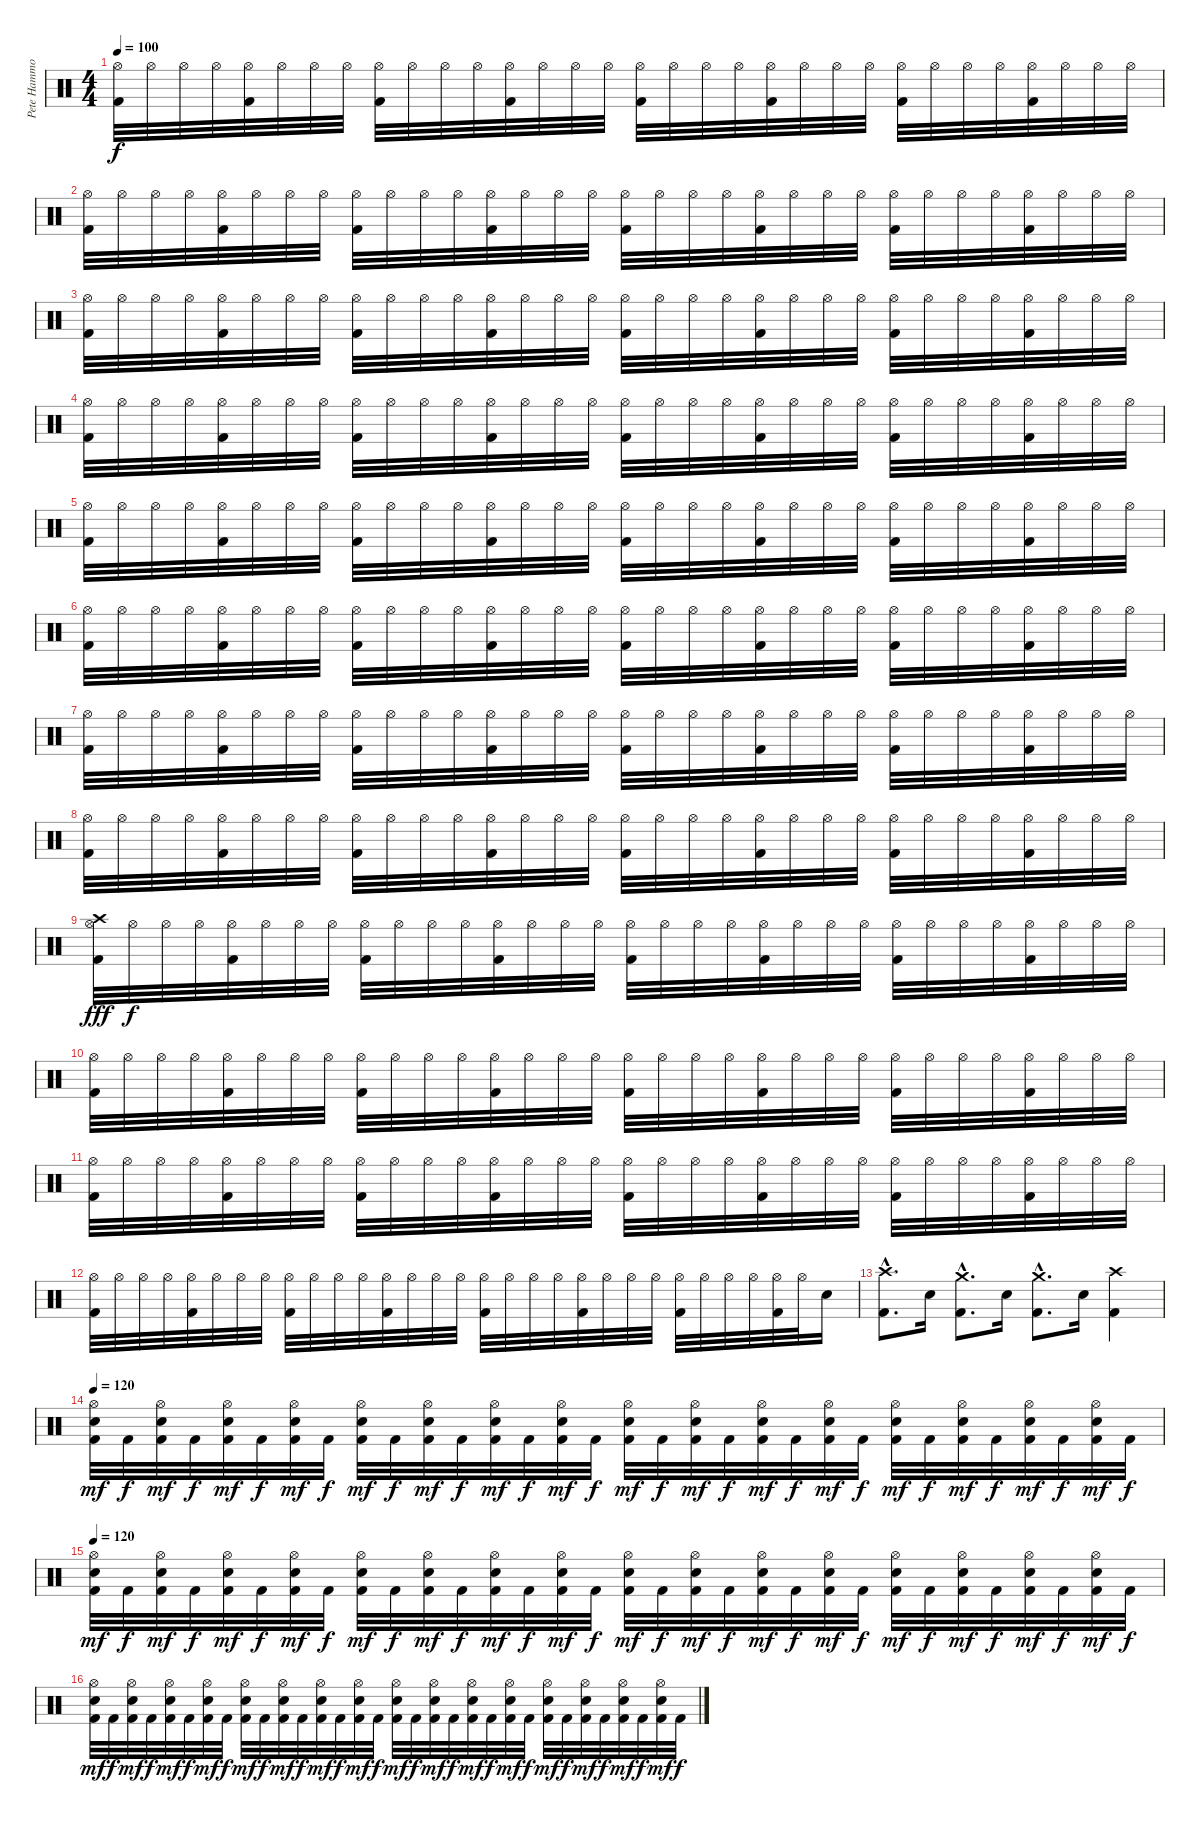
\track ("Pete Hammoura" "Pete Hammo") {instrument percussion}
\staff {score}
\articulation defaults
\ts (4 4)
\tempo 100
\clef neutral
\ks c
("Hi-Hat (open)" "Kick (hit) 2").32{dy f} "Hi-Hat (open)".32 "Hi-Hat (open)".32 "Hi-Hat (open)".32 ("Hi-Hat (open)" "Kick (hit) 2").32 "Hi-Hat (open)".32 "Hi-Hat (open)".32 "Hi-Hat (open)".32 ("Hi-Hat (open)" "Kick (hit) 2").32 "Hi-Hat (open)".32 "Hi-Hat (open)".32 "Hi-Hat (open)".32 ("Hi-Hat (open)" "Kick (hit) 2").32 "Hi-Hat (open)".32 "Hi-Hat (open)".32 "Hi-Hat (open)".32 ("Hi-Hat (open)" "Kick (hit) 2").32 "Hi-Hat (open)".32 "Hi-Hat (open)".32 "Hi-Hat (open)".32 ("Hi-Hat (open)" "Kick (hit) 2").32 "Hi-Hat (open)".32 "Hi-Hat (open)".32 "Hi-Hat (open)".32 ("Hi-Hat (open)" "Kick (hit) 2").32 "Hi-Hat (open)".32 "Hi-Hat (open)".32 "Hi-Hat (open)".32 ("Hi-Hat (open)" "Kick (hit) 2").32 "Hi-Hat (open)".32 "Hi-Hat (open)".32 "Hi-Hat (open)".32 |
("Hi-Hat (open)" "Kick (hit) 2").32 "Hi-Hat (open)".32 "Hi-Hat (open)".32 "Hi-Hat (open)".32 ("Hi-Hat (open)" "Kick (hit) 2").32 "Hi-Hat (open)".32 "Hi-Hat (open)".32 "Hi-Hat (open)".32 ("Hi-Hat (open)" "Kick (hit) 2").32 "Hi-Hat (open)".32 "Hi-Hat (open)".32 "Hi-Hat (open)".32 ("Hi-Hat (open)" "Kick (hit) 2").32 "Hi-Hat (open)".32 "Hi-Hat (open)".32 "Hi-Hat (open)".32 ("Hi-Hat (open)" "Kick (hit) 2").32 "Hi-Hat (open)".32 "Hi-Hat (open)".32 "Hi-Hat (open)".32 ("Hi-Hat (open)" "Kick (hit) 2").32 "Hi-Hat (open)".32 "Hi-Hat (open)".32 "Hi-Hat (open)".32 ("Hi-Hat (open)" "Kick (hit) 2").32 "Hi-Hat (open)".32 "Hi-Hat (open)".32 "Hi-Hat (open)".32 ("Hi-Hat (open)" "Kick (hit) 2").32 "Hi-Hat (open)".32 "Hi-Hat (open)".32 "Hi-Hat (open)".32 |
("Hi-Hat (open)" "Kick (hit) 2").32 "Hi-Hat (open)".32 "Hi-Hat (open)".32 "Hi-Hat (open)".32 ("Hi-Hat (open)" "Kick (hit) 2").32 "Hi-Hat (open)".32 "Hi-Hat (open)".32 "Hi-Hat (open)".32 ("Hi-Hat (open)" "Kick (hit) 2").32 "Hi-Hat (open)".32 "Hi-Hat (open)".32 "Hi-Hat (open)".32 ("Hi-Hat (open)" "Kick (hit) 2").32 "Hi-Hat (open)".32 "Hi-Hat (open)".32 "Hi-Hat (open)".32 ("Hi-Hat (open)" "Kick (hit) 2").32 "Hi-Hat (open)".32 "Hi-Hat (open)".32 "Hi-Hat (open)".32 ("Hi-Hat (open)" "Kick (hit) 2").32 "Hi-Hat (open)".32 "Hi-Hat (open)".32 "Hi-Hat (open)".32 ("Hi-Hat (open)" "Kick (hit) 2").32 "Hi-Hat (open)".32 "Hi-Hat (open)".32 "Hi-Hat (open)".32 ("Hi-Hat (open)" "Kick (hit) 2").32 "Hi-Hat (open)".32 "Hi-Hat (open)".32 "Hi-Hat (open)".32 |
("Hi-Hat (open)" "Kick (hit) 2").32 "Hi-Hat (open)".32 "Hi-Hat (open)".32 "Hi-Hat (open)".32 ("Hi-Hat (open)" "Kick (hit) 2").32 "Hi-Hat (open)".32 "Hi-Hat (open)".32 "Hi-Hat (open)".32 ("Hi-Hat (open)" "Kick (hit) 2").32 "Hi-Hat (open)".32 "Hi-Hat (open)".32 "Hi-Hat (open)".32 ("Hi-Hat (open)" "Kick (hit) 2").32 "Hi-Hat (open)".32 "Hi-Hat (open)".32 "Hi-Hat (open)".32 ("Hi-Hat (open)" "Kick (hit) 2").32 "Hi-Hat (open)".32 "Hi-Hat (open)".32 "Hi-Hat (open)".32 ("Hi-Hat (open)" "Kick (hit) 2").32 "Hi-Hat (open)".32 "Hi-Hat (open)".32 "Hi-Hat (open)".32 ("Hi-Hat (open)" "Kick (hit) 2").32 "Hi-Hat (open)".32 "Hi-Hat (open)".32 "Hi-Hat (open)".32 ("Hi-Hat (open)" "Kick (hit) 2").32 "Hi-Hat (open)".32 "Hi-Hat (open)".32 "Hi-Hat (open)".32 |
("Hi-Hat (open)" "Kick (hit) 2").32 "Hi-Hat (open)".32 "Hi-Hat (open)".32 "Hi-Hat (open)".32 ("Hi-Hat (open)" "Kick (hit) 2").32 "Hi-Hat (open)".32 "Hi-Hat (open)".32 "Hi-Hat (open)".32 ("Hi-Hat (open)" "Kick (hit) 2").32 "Hi-Hat (open)".32 "Hi-Hat (open)".32 "Hi-Hat (open)".32 ("Hi-Hat (open)" "Kick (hit) 2").32 "Hi-Hat (open)".32 "Hi-Hat (open)".32 "Hi-Hat (open)".32 ("Hi-Hat (open)" "Kick (hit) 2").32 "Hi-Hat (open)".32 "Hi-Hat (open)".32 "Hi-Hat (open)".32 ("Hi-Hat (open)" "Kick (hit) 2").32 "Hi-Hat (open)".32 "Hi-Hat (open)".32 "Hi-Hat (open)".32 ("Hi-Hat (open)" "Kick (hit) 2").32 "Hi-Hat (open)".32 "Hi-Hat (open)".32 "Hi-Hat (open)".32 ("Hi-Hat (open)" "Kick (hit) 2").32 "Hi-Hat (open)".32 "Hi-Hat (open)".32 "Hi-Hat (open)".32 |
("Hi-Hat (open)" "Kick (hit) 2").32 "Hi-Hat (open)".32 "Hi-Hat (open)".32 "Hi-Hat (open)".32 ("Hi-Hat (open)" "Kick (hit) 2").32 "Hi-Hat (open)".32 "Hi-Hat (open)".32 "Hi-Hat (open)".32 ("Hi-Hat (open)" "Kick (hit) 2").32 "Hi-Hat (open)".32 "Hi-Hat (open)".32 "Hi-Hat (open)".32 ("Hi-Hat (open)" "Kick (hit) 2").32 "Hi-Hat (open)".32 "Hi-Hat (open)".32 "Hi-Hat (open)".32 ("Hi-Hat (open)" "Kick (hit) 2").32 "Hi-Hat (open)".32 "Hi-Hat (open)".32 "Hi-Hat (open)".32 ("Hi-Hat (open)" "Kick (hit) 2").32 "Hi-Hat (open)".32 "Hi-Hat (open)".32 "Hi-Hat (open)".32 ("Hi-Hat (open)" "Kick (hit) 2").32 "Hi-Hat (open)".32 "Hi-Hat (open)".32 "Hi-Hat (open)".32 ("Hi-Hat (open)" "Kick (hit) 2").32 "Hi-Hat (open)".32 "Hi-Hat (open)".32 "Hi-Hat (open)".32 |
("Hi-Hat (open)" "Kick (hit) 2").32 "Hi-Hat (open)".32 "Hi-Hat (open)".32 "Hi-Hat (open)".32 ("Hi-Hat (open)" "Kick (hit) 2").32 "Hi-Hat (open)".32 "Hi-Hat (open)".32 "Hi-Hat (open)".32 ("Hi-Hat (open)" "Kick (hit) 2").32 "Hi-Hat (open)".32 "Hi-Hat (open)".32 "Hi-Hat (open)".32 ("Hi-Hat (open)" "Kick (hit) 2").32 "Hi-Hat (open)".32 "Hi-Hat (open)".32 "Hi-Hat (open)".32 ("Hi-Hat (open)" "Kick (hit) 2").32 "Hi-Hat (open)".32 "Hi-Hat (open)".32 "Hi-Hat (open)".32 ("Hi-Hat (open)" "Kick (hit) 2").32 "Hi-Hat (open)".32 "Hi-Hat (open)".32 "Hi-Hat (open)".32 ("Hi-Hat (open)" "Kick (hit) 2").32 "Hi-Hat (open)".32 "Hi-Hat (open)".32 "Hi-Hat (open)".32 ("Hi-Hat (open)" "Kick (hit) 2").32 "Hi-Hat (open)".32 "Hi-Hat (open)".32 "Hi-Hat (open)".32 |
("Hi-Hat (open)" "Kick (hit) 2").32 "Hi-Hat (open)".32 "Hi-Hat (open)".32 "Hi-Hat (open)".32 ("Hi-Hat (open)" "Kick (hit) 2").32 "Hi-Hat (open)".32 "Hi-Hat (open)".32 "Hi-Hat (open)".32 ("Hi-Hat (open)" "Kick (hit) 2").32 "Hi-Hat (open)".32 "Hi-Hat (open)".32 "Hi-Hat (open)".32 ("Hi-Hat (open)" "Kick (hit) 2").32 "Hi-Hat (open)".32 "Hi-Hat (open)".32 "Hi-Hat (open)".32 ("Hi-Hat (open)" "Kick (hit) 2").32 "Hi-Hat (open)".32 "Hi-Hat (open)".32 "Hi-Hat (open)".32 ("Hi-Hat (open)" "Kick (hit) 2").32 "Hi-Hat (open)".32 "Hi-Hat (open)".32 "Hi-Hat (open)".32 ("Hi-Hat (open)" "Kick (hit) 2").32 "Hi-Hat (open)".32 "Hi-Hat (open)".32 "Hi-Hat (open)".32 ("Hi-Hat (open)" "Kick (hit) 2").32 "Hi-Hat (open)".32 "Hi-Hat (open)".32 "Hi-Hat (open)".32 |
("Crash high (hit)" "Hi-Hat (open)" "Kick (hit) 2").32{dy fff} "Hi-Hat (open)".32{dy f} "Hi-Hat (open)".32 "Hi-Hat (open)".32 ("Hi-Hat (open)" "Kick (hit) 2").32 "Hi-Hat (open)".32 "Hi-Hat (open)".32 "Hi-Hat (open)".32 ("Hi-Hat (open)" "Kick (hit) 2").32 "Hi-Hat (open)".32 "Hi-Hat (open)".32 "Hi-Hat (open)".32 ("Hi-Hat (open)" "Kick (hit) 2").32 "Hi-Hat (open)".32 "Hi-Hat (open)".32 "Hi-Hat (open)".32 ("Hi-Hat (open)" "Kick (hit) 2").32 "Hi-Hat (open)".32 "Hi-Hat (open)".32 "Hi-Hat (open)".32 ("Hi-Hat (open)" "Kick (hit) 2").32 "Hi-Hat (open)".32 "Hi-Hat (open)".32 "Hi-Hat (open)".32 ("Hi-Hat (open)" "Kick (hit) 2").32 "Hi-Hat (open)".32 "Hi-Hat (open)".32 "Hi-Hat (open)".32 ("Hi-Hat (open)" "Kick (hit) 2").32 "Hi-Hat (open)".32 "Hi-Hat (open)".32 "Hi-Hat (open)".32 |
("Hi-Hat (open)" "Kick (hit) 2").32 "Hi-Hat (open)".32 "Hi-Hat (open)".32 "Hi-Hat (open)".32 ("Hi-Hat (open)" "Kick (hit) 2").32 "Hi-Hat (open)".32 "Hi-Hat (open)".32 "Hi-Hat (open)".32 ("Hi-Hat (open)" "Kick (hit) 2").32 "Hi-Hat (open)".32 "Hi-Hat (open)".32 "Hi-Hat (open)".32 ("Hi-Hat (open)" "Kick (hit) 2").32 "Hi-Hat (open)".32 "Hi-Hat (open)".32 "Hi-Hat (open)".32 ("Hi-Hat (open)" "Kick (hit) 2").32 "Hi-Hat (open)".32 "Hi-Hat (open)".32 "Hi-Hat (open)".32 ("Hi-Hat (open)" "Kick (hit) 2").32 "Hi-Hat (open)".32 "Hi-Hat (open)".32 "Hi-Hat (open)".32 ("Hi-Hat (open)" "Kick (hit) 2").32 "Hi-Hat (open)".32 "Hi-Hat (open)".32 "Hi-Hat (open)".32 ("Hi-Hat (open)" "Kick (hit) 2").32 "Hi-Hat (open)".32 "Hi-Hat (open)".32 "Hi-Hat (open)".32 |
("Hi-Hat (open)" "Kick (hit) 2").32 "Hi-Hat (open)".32 "Hi-Hat (open)".32 "Hi-Hat (open)".32 ("Hi-Hat (open)" "Kick (hit) 2").32 "Hi-Hat (open)".32 "Hi-Hat (open)".32 "Hi-Hat (open)".32 ("Hi-Hat (open)" "Kick (hit) 2").32 "Hi-Hat (open)".32 "Hi-Hat (open)".32 "Hi-Hat (open)".32 ("Hi-Hat (open)" "Kick (hit) 2").32 "Hi-Hat (open)".32 "Hi-Hat (open)".32 "Hi-Hat (open)".32 ("Hi-Hat (open)" "Kick (hit) 2").32 "Hi-Hat (open)".32 "Hi-Hat (open)".32 "Hi-Hat (open)".32 ("Hi-Hat (open)" "Kick (hit) 2").32 "Hi-Hat (open)".32 "Hi-Hat (open)".32 "Hi-Hat (open)".32 ("Hi-Hat (open)" "Kick (hit) 2").32 "Hi-Hat (open)".32 "Hi-Hat (open)".32 "Hi-Hat (open)".32 ("Hi-Hat (open)" "Kick (hit) 2").32 "Hi-Hat (open)".32 "Hi-Hat (open)".32 "Hi-Hat (open)".32 |
("Hi-Hat (open)" "Kick (hit) 2").32 "Hi-Hat (open)".32 "Hi-Hat (open)".32 "Hi-Hat (open)".32 ("Hi-Hat (open)" "Kick (hit) 2").32 "Hi-Hat (open)".32 "Hi-Hat (open)".32 "Hi-Hat (open)".32 ("Hi-Hat (open)" "Kick (hit) 2").32 "Hi-Hat (open)".32 "Hi-Hat (open)".32 "Hi-Hat (open)".32 ("Hi-Hat (open)" "Kick (hit) 2").32 "Hi-Hat (open)".32 "Hi-Hat (open)".32 "Hi-Hat (open)".32 ("Hi-Hat (open)" "Kick (hit) 2").32 "Hi-Hat (open)".32 "Hi-Hat (open)".32 "Hi-Hat (open)".32 ("Hi-Hat (open)" "Kick (hit) 2").32 "Hi-Hat (open)".32 "Hi-Hat (open)".32 "Hi-Hat (open)".32 ("Hi-Hat (open)" "Kick (hit) 2").32 "Hi-Hat (open)".32 "Hi-Hat (open)".32 "Hi-Hat (open)".32 ("Hi-Hat (open)" "Kick (hit) 2").32 "Hi-Hat (open)".32 "Electric Snare (hit)".16 |
("Crash high (hit)"{hac} "Kick (hit) 2"{hac}).8{d} "Electric Snare (hit)".16 ("Crash medium (hit)"{hac} "Kick (hit) 2"{hac}).8{d} "Electric Snare (hit)".16 ("Crash medium (hit)"{hac} "Kick (hit) 2"{hac}).8{d} "Electric Snare (hit)".16 ("Crash high (hit)" "Kick (hit) 2").4 |
\tempo 120
("Hi-Hat (open)" "Electric Snare (hit)" "Kick (hit) 2").32{dy mf} "Kick (hit) 2".32{dy f} ("Hi-Hat (open)" "Electric Snare (hit)" "Kick (hit) 2").32{dy mf} "Kick (hit) 2".32{dy f} ("Hi-Hat (open)" "Electric Snare (hit)" "Kick (hit) 2").32{dy mf} "Kick (hit) 2".32{dy f} ("Hi-Hat (open)" "Electric Snare (hit)" "Kick (hit) 2").32{dy mf} "Kick (hit) 2".32{dy f} ("Hi-Hat (open)" "Electric Snare (hit)" "Kick (hit) 2").32{dy mf} "Kick (hit) 2".32{dy f} ("Hi-Hat (open)" "Electric Snare (hit)" "Kick (hit) 2").32{dy mf} "Kick (hit) 2".32{dy f} ("Hi-Hat (open)" "Electric Snare (hit)" "Kick (hit) 2").32{dy mf} "Kick (hit) 2".32{dy f} ("Hi-Hat (open)" "Electric Snare (hit)" "Kick (hit) 2").32{dy mf} "Kick (hit) 2".32{dy f} ("Hi-Hat (open)" "Electric Snare (hit)" "Kick (hit) 2").32{dy mf} "Kick (hit) 2".32{dy f} ("Hi-Hat (open)" "Electric Snare (hit)" "Kick (hit) 2").32{dy mf} "Kick (hit) 2".32{dy f} ("Hi-Hat (open)" "Electric Snare (hit)" "Kick (hit) 2").32{dy mf} "Kick (hit) 2".32{dy f} ("Hi-Hat (open)" "Electric Snare (hit)" "Kick (hit) 2").32{dy mf} "Kick (hit) 2".32{dy f} ("Hi-Hat (open)" "Electric Snare (hit)" "Kick (hit) 2").32{dy mf} "Kick (hit) 2".32{dy f} ("Hi-Hat (open)" "Electric Snare (hit)" "Kick (hit) 2").32{dy mf} "Kick (hit) 2".32{dy f} ("Hi-Hat (open)" "Electric Snare (hit)" "Kick (hit) 2").32{dy mf} "Kick (hit) 2".32{dy f} ("Hi-Hat (open)" "Electric Snare (hit)" "Kick (hit) 2").32{dy mf} "Kick (hit) 2".32{dy f} |
\tempo 120
("Hi-Hat (open)" "Electric Snare (hit)" "Kick (hit) 2").32{dy mf} "Kick (hit) 2".32{dy f} ("Hi-Hat (open)" "Electric Snare (hit)" "Kick (hit) 2").32{dy mf} "Kick (hit) 2".32{dy f} ("Hi-Hat (open)" "Electric Snare (hit)" "Kick (hit) 2").32{dy mf} "Kick (hit) 2".32{dy f} ("Hi-Hat (open)" "Electric Snare (hit)" "Kick (hit) 2").32{dy mf} "Kick (hit) 2".32{dy f} ("Hi-Hat (open)" "Electric Snare (hit)" "Kick (hit) 2").32{dy mf} "Kick (hit) 2".32{dy f} ("Hi-Hat (open)" "Electric Snare (hit)" "Kick (hit) 2").32{dy mf} "Kick (hit) 2".32{dy f} ("Hi-Hat (open)" "Electric Snare (hit)" "Kick (hit) 2").32{dy mf} "Kick (hit) 2".32{dy f} ("Hi-Hat (open)" "Electric Snare (hit)" "Kick (hit) 2").32{dy mf} "Kick (hit) 2".32{dy f} ("Hi-Hat (open)" "Electric Snare (hit)" "Kick (hit) 2").32{dy mf} "Kick (hit) 2".32{dy f} ("Hi-Hat (open)" "Electric Snare (hit)" "Kick (hit) 2").32{dy mf} "Kick (hit) 2".32{dy f} ("Hi-Hat (open)" "Electric Snare (hit)" "Kick (hit) 2").32{dy mf} "Kick (hit) 2".32{dy f} ("Hi-Hat (open)" "Electric Snare (hit)" "Kick (hit) 2").32{dy mf} "Kick (hit) 2".32{dy f} ("Hi-Hat (open)" "Electric Snare (hit)" "Kick (hit) 2").32{dy mf} "Kick (hit) 2".32{dy f} ("Hi-Hat (open)" "Electric Snare (hit)" "Kick (hit) 2").32{dy mf} "Kick (hit) 2".32{dy f} ("Hi-Hat (open)" "Electric Snare (hit)" "Kick (hit) 2").32{dy mf} "Kick (hit) 2".32{dy f} ("Hi-Hat (open)" "Electric Snare (hit)" "Kick (hit) 2").32{dy mf} "Kick (hit) 2".32{dy f} |
("Hi-Hat (open)" "Electric Snare (hit)" "Kick (hit) 2").32{dy mf} "Kick (hit) 2".32{dy f} ("Hi-Hat (open)" "Electric Snare (hit)" "Kick (hit) 2").32{dy mf} "Kick (hit) 2".32{dy f} ("Hi-Hat (open)" "Electric Snare (hit)" "Kick (hit) 2").32{dy mf} "Kick (hit) 2".32{dy f} ("Hi-Hat (open)" "Electric Snare (hit)" "Kick (hit) 2").32{dy mf} "Kick (hit) 2".32{dy f} ("Hi-Hat (open)" "Electric Snare (hit)" "Kick (hit) 2").32{dy mf} "Kick (hit) 2".32{dy f} ("Hi-Hat (open)" "Electric Snare (hit)" "Kick (hit) 2").32{dy mf} "Kick (hit) 2".32{dy f} ("Hi-Hat (open)" "Electric Snare (hit)" "Kick (hit) 2").32{dy mf} "Kick (hit) 2".32{dy f} ("Hi-Hat (open)" "Electric Snare (hit)" "Kick (hit) 2").32{dy mf} "Kick (hit) 2".32{dy f} ("Hi-Hat (open)" "Electric Snare (hit)" "Kick (hit) 2").32{dy mf} "Kick (hit) 2".32{dy f} ("Hi-Hat (open)" "Electric Snare (hit)" "Kick (hit) 2").32{dy mf} "Kick (hit) 2".32{dy f} ("Hi-Hat (open)" "Electric Snare (hit)" "Kick (hit) 2").32{dy mf} "Kick (hit) 2".32{dy f} ("Hi-Hat (open)" "Electric Snare (hit)" "Kick (hit) 2").32{dy mf} "Kick (hit) 2".32{dy f} ("Hi-Hat (open)" "Electric Snare (hit)" "Kick (hit) 2").32{dy mf} "Kick (hit) 2".32{dy f} ("Hi-Hat (open)" "Electric Snare (hit)" "Kick (hit) 2").32{dy mf} "Kick (hit) 2".32{dy f} ("Hi-Hat (open)" "Electric Snare (hit)" "Kick (hit) 2").32{dy mf} "Kick (hit) 2".32{dy f} ("Hi-Hat (open)" "Electric Snare (hit)" "Kick (hit) 2").32{dy mf} "Kick (hit) 2".32{dy f}
